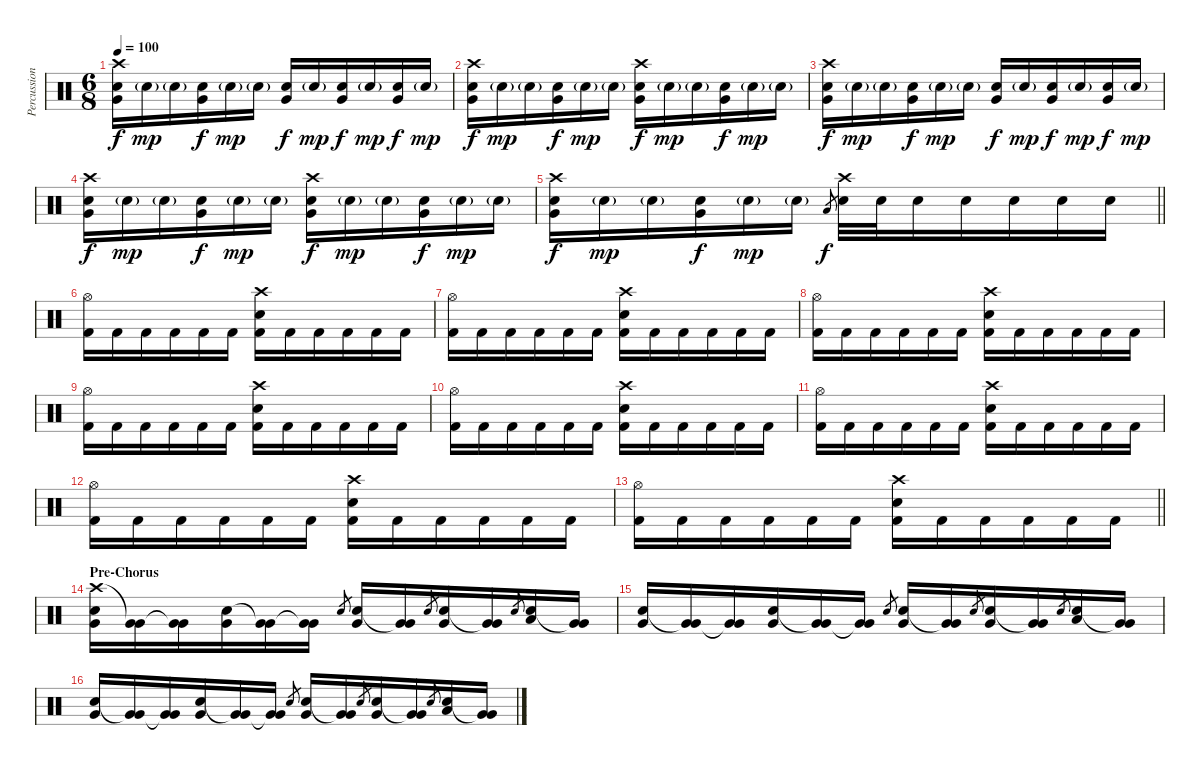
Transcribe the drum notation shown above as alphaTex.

\track ("Percussion" "Percussion") {instrument percussion}
\staff {score}
\articulation defaults
\ts (6 8)
\tempo 100
\clef neutral
\ks c
("Crash high (hit)" "Electric Snare (hit)" "Very Low Tom (hit)").16{dy f} "Electric Snare (hit)"{g}.16{dy mp} "Electric Snare (hit)"{g}.16 ("Electric Snare (hit)" "Very Low Tom (hit)").16{dy f} "Electric Snare (hit)"{g}.16{dy mp} "Electric Snare (hit)"{g}.16 ("Electric Snare (hit)" "Very Low Tom (hit)").16{dy f} "Electric Snare (hit)"{g}.16{dy mp} ("Electric Snare (hit)" "Very Low Tom (hit)").16{dy f} "Electric Snare (hit)"{g}.16{dy mp} ("Electric Snare (hit)" "Very Low Tom (hit)").16{dy f} "Electric Snare (hit)"{g}.16{dy mp} |
("Crash high (hit)" "Electric Snare (hit)" "Very Low Tom (hit)").16{dy f} "Electric Snare (hit)"{g}.16{dy mp} "Electric Snare (hit)"{g}.16 ("Electric Snare (hit)" "Very Low Tom (hit)").16{dy f} "Electric Snare (hit)"{g}.16{dy mp} "Electric Snare (hit)"{g}.16 ("Crash high (hit)" "Electric Snare (hit)" "Very Low Tom (hit)").16{dy f} "Electric Snare (hit)"{g}.16{dy mp} "Electric Snare (hit)"{g}.16 ("Electric Snare (hit)" "Very Low Tom (hit)").16{dy f} "Electric Snare (hit)"{g}.16{dy mp} "Electric Snare (hit)"{g}.16 |
("Crash high (hit)" "Electric Snare (hit)" "Very Low Tom (hit)").16{dy f} "Electric Snare (hit)"{g}.16{dy mp} "Electric Snare (hit)"{g}.16 ("Electric Snare (hit)" "Very Low Tom (hit)").16{dy f} "Electric Snare (hit)"{g}.16{dy mp} "Electric Snare (hit)"{g}.16 ("Electric Snare (hit)" "Very Low Tom (hit)").16{dy f} "Electric Snare (hit)"{g}.16{dy mp} ("Electric Snare (hit)" "Very Low Tom (hit)").16{dy f} "Electric Snare (hit)"{g}.16{dy mp} ("Electric Snare (hit)" "Very Low Tom (hit)").16{dy f} "Electric Snare (hit)"{g}.16{dy mp} |
("Crash high (hit)" "Electric Snare (hit)" "Very Low Tom (hit)").16{dy f} "Electric Snare (hit)"{g}.16{dy mp} "Electric Snare (hit)"{g}.16 ("Electric Snare (hit)" "Very Low Tom (hit)").16{dy f} "Electric Snare (hit)"{g}.16{dy mp} "Electric Snare (hit)"{g}.16 ("Crash high (hit)" "Electric Snare (hit)" "Very Low Tom (hit)").16{dy f} "Electric Snare (hit)"{g}.16{dy mp} "Electric Snare (hit)"{g}.16 ("Electric Snare (hit)" "Very Low Tom (hit)").16{dy f} "Electric Snare (hit)"{g}.16{dy mp} "Electric Snare (hit)"{g}.16 |
\barLineRight lightlight
("Crash high (hit)" "Electric Snare (hit)" "Very Low Tom (hit)").16{dy f} "Electric Snare (hit)"{g}.16{dy mp} "Electric Snare (hit)"{g}.16 ("Electric Snare (hit)" "Very Low Tom (hit)").16{dy f} "Electric Snare (hit)"{g}.16{dy mp} "Electric Snare (hit)"{g}.16 "Low Tom (hit)".8{gr dy f} ("Crash high (hit)" "Electric Snare (hit)").32 "Electric Snare (hit)".32 "Electric Snare (hit)".16 "Electric Snare (hit)".16 "Electric Snare (hit)".16 "Electric Snare (hit)".16 "Electric Snare (hit)".16 |
("Hi-Hat (open)" "Kick (hit) 2").16 "Kick (hit) 2".16 "Kick (hit) 2".16 "Kick (hit) 2".16 "Kick (hit) 2".16 "Kick (hit) 2".16 ("Crash high (hit)" "Electric Snare (hit)" "Kick (hit) 2").16 "Kick (hit) 2".16 "Kick (hit) 2".16 "Kick (hit) 2".16 "Kick (hit) 2".16 "Kick (hit) 2".16 |
("Hi-Hat (open)" "Kick (hit) 2").16 "Kick (hit) 2".16 "Kick (hit) 2".16 "Kick (hit) 2".16 "Kick (hit) 2".16 "Kick (hit) 2".16 ("Crash high (hit)" "Electric Snare (hit)" "Kick (hit) 2").16 "Kick (hit) 2".16 "Kick (hit) 2".16 "Kick (hit) 2".16 "Kick (hit) 2".16 "Kick (hit) 2".16 |
("Hi-Hat (open)" "Kick (hit) 2").16 "Kick (hit) 2".16 "Kick (hit) 2".16 "Kick (hit) 2".16 "Kick (hit) 2".16 "Kick (hit) 2".16 ("Crash high (hit)" "Electric Snare (hit)" "Kick (hit) 2").16 "Kick (hit) 2".16 "Kick (hit) 2".16 "Kick (hit) 2".16 "Kick (hit) 2".16 "Kick (hit) 2".16 |
("Hi-Hat (open)" "Kick (hit) 2").16 "Kick (hit) 2".16 "Kick (hit) 2".16 "Kick (hit) 2".16 "Kick (hit) 2".16 "Kick (hit) 2".16 ("Crash high (hit)" "Electric Snare (hit)" "Kick (hit) 2").16 "Kick (hit) 2".16 "Kick (hit) 2".16 "Kick (hit) 2".16 "Kick (hit) 2".16 "Kick (hit) 2".16 |
("Hi-Hat (open)" "Kick (hit) 2").16 "Kick (hit) 2".16 "Kick (hit) 2".16 "Kick (hit) 2".16 "Kick (hit) 2".16 "Kick (hit) 2".16 ("Crash high (hit)" "Electric Snare (hit)" "Kick (hit) 2").16 "Kick (hit) 2".16 "Kick (hit) 2".16 "Kick (hit) 2".16 "Kick (hit) 2".16 "Kick (hit) 2".16 |
("Hi-Hat (open)" "Kick (hit) 2").16 "Kick (hit) 2".16 "Kick (hit) 2".16 "Kick (hit) 2".16 "Kick (hit) 2".16 "Kick (hit) 2".16 ("Crash high (hit)" "Electric Snare (hit)" "Kick (hit) 2").16 "Kick (hit) 2".16 "Kick (hit) 2".16 "Kick (hit) 2".16 "Kick (hit) 2".16 "Kick (hit) 2".16 |
("Hi-Hat (open)" "Kick (hit) 2").16 "Kick (hit) 2".16 "Kick (hit) 2".16 "Kick (hit) 2".16 "Kick (hit) 2".16 "Kick (hit) 2".16 ("Crash high (hit)" "Electric Snare (hit)" "Kick (hit) 2").16 "Kick (hit) 2".16 "Kick (hit) 2".16 "Kick (hit) 2".16 "Kick (hit) 2".16 "Kick (hit) 2".16 |
\barLineRight lightlight
("Hi-Hat (open)" "Kick (hit) 2").16 "Kick (hit) 2".16 "Kick (hit) 2".16 "Kick (hit) 2".16 "Kick (hit) 2".16 "Kick (hit) 2".16 ("Crash high (hit)" "Electric Snare (hit)" "Kick (hit) 2").16 "Kick (hit) 2".16 "Kick (hit) 2".16 "Kick (hit) 2".16 "Kick (hit) 2".16 "Kick (hit) 2".16 |
\section ("" "Pre-Chorus")
("Crash high (hit)" "Electric Snare (hit)" "Very Low Tom (hit)").16 ("Very Low Tom (hit)"{t} "Very Low Tom (hit)").16 ("Very Low Tom (hit)"{t} "Very Low Tom (hit)").16 ("Electric Snare (hit)" "Very Low Tom (hit)").16 ("Very Low Tom (hit)"{t} "Very Low Tom (hit)").16 ("Very Low Tom (hit)"{t} "Very Low Tom (hit)").16 "Electric Snare (hit)".8{gr} ("Electric Snare (hit)" "Very Low Tom (hit)").16 ("Very Low Tom (hit)"{t} "Very Low Tom (hit)").16 "Electric Snare (hit)".8{gr} ("Electric Snare (hit)" "Very Low Tom (hit)").16 ("Very Low Tom (hit)"{t} "Very Low Tom (hit)").16 "Electric Snare (hit)".8{gr} ("Electric Snare (hit)" "Low Floor Tom (hit)").16 ("Very Low Tom (hit)"{t} "Very Low Tom (hit)").16 |
("Electric Snare (hit)" "Very Low Tom (hit)").16 ("Very Low Tom (hit)"{t} "Very Low Tom (hit)").16 ("Very Low Tom (hit)"{t} "Very Low Tom (hit)").16 ("Electric Snare (hit)" "Very Low Tom (hit)").16 ("Very Low Tom (hit)"{t} "Very Low Tom (hit)").16 ("Very Low Tom (hit)"{t} "Very Low Tom (hit)").16 "Electric Snare (hit)".8{gr} ("Electric Snare (hit)" "Very Low Tom (hit)").16 ("Very Low Tom (hit)"{t} "Very Low Tom (hit)").16 "Electric Snare (hit)".8{gr} ("Electric Snare (hit)" "Very Low Tom (hit)").16 ("Very Low Tom (hit)"{t} "Very Low Tom (hit)").16 "Electric Snare (hit)".8{gr} ("Electric Snare (hit)" "Low Floor Tom (hit)").16 ("Very Low Tom (hit)"{t} "Very Low Tom (hit)").16 |
("Electric Snare (hit)" "Very Low Tom (hit)").16 ("Very Low Tom (hit)"{t} "Very Low Tom (hit)").16 ("Very Low Tom (hit)"{t} "Very Low Tom (hit)").16 ("Electric Snare (hit)" "Very Low Tom (hit)").16 ("Very Low Tom (hit)"{t} "Very Low Tom (hit)").16 ("Very Low Tom (hit)"{t} "Very Low Tom (hit)").16 "Electric Snare (hit)".8{gr} ("Electric Snare (hit)" "Very Low Tom (hit)").16 ("Very Low Tom (hit)"{t} "Very Low Tom (hit)").16 "Electric Snare (hit)".8{gr} ("Electric Snare (hit)" "Very Low Tom (hit)").16 ("Very Low Tom (hit)"{t} "Very Low Tom (hit)").16 "Electric Snare (hit)".8{gr} ("Electric Snare (hit)" "Low Floor Tom (hit)").16 ("Very Low Tom (hit)"{t} "Very Low Tom (hit)").16
